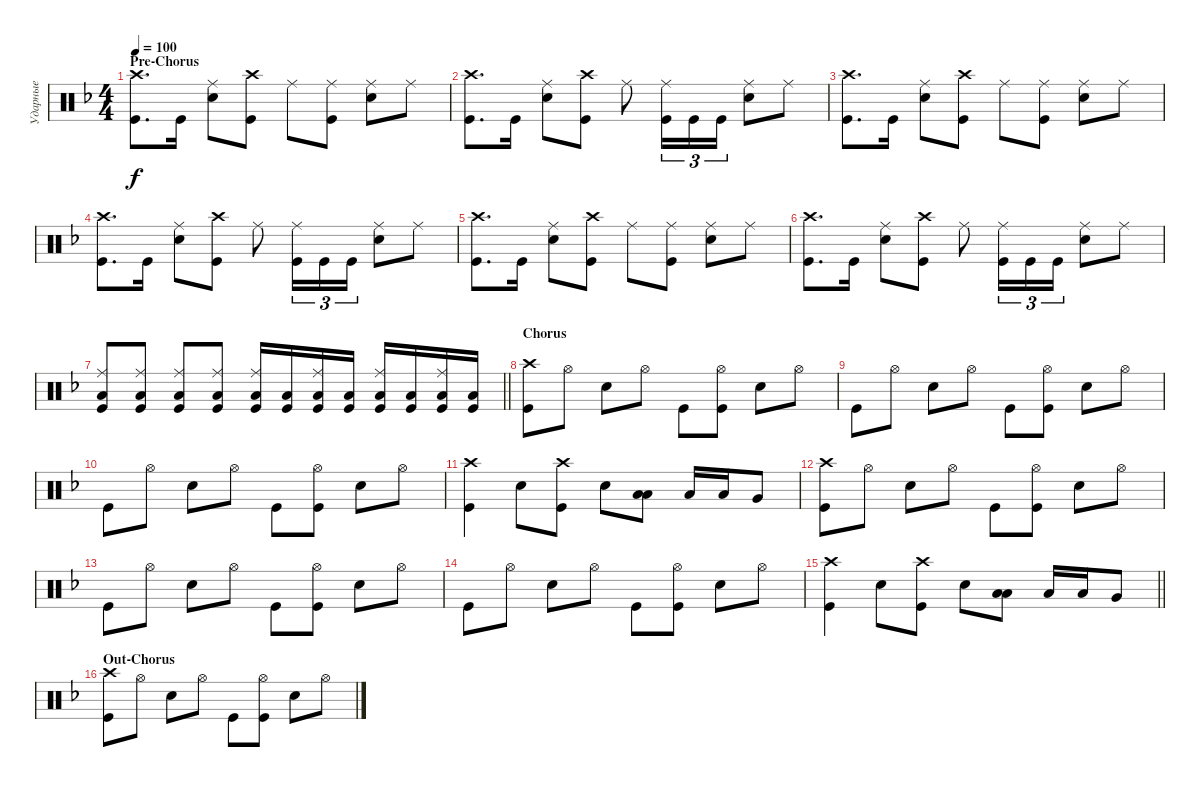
\track ("Ударные" "Ударные") {instrument percussion}
\staff {score}
\articulation defaults
\ts (4 4)
\section ("" "Pre-Chorus")
\tempo 100
\clef neutral
\ks dminor
("Kick (hit)" "Crash high (hit)").8{d dy f} "Kick (hit)".16 ("Snare (hit) 2" "Ride (middle)").8 ("Kick (hit)" "Crash high (hit)").8 "Ride (middle)".8 ("Ride (middle)" "Kick (hit)").8 ("Snare (hit) 2" "Ride (middle)").8 "Ride (middle)".8 |
("Kick (hit)" "Crash high (hit)").8{d} "Kick (hit)".16 ("Snare (hit) 2" "Ride (middle)").8 ("Kick (hit)" "Crash high (hit)").8 "Ride (middle)".8 ("Ride (middle)" "Kick (hit)").16{tu (3 2)} "Kick (hit)".16{tu (3 2)} "Kick (hit)".16{tu (3 2)} ("Snare (hit) 2" "Ride (middle)").8 "Ride (middle)".8 |
("Kick (hit)" "Crash high (hit)").8{d} "Kick (hit)".16 ("Snare (hit) 2" "Ride (middle)").8 ("Kick (hit)" "Crash high (hit)").8 "Ride (middle)".8 ("Ride (middle)" "Kick (hit)").8 ("Snare (hit) 2" "Ride (middle)").8 "Ride (middle)".8 |
("Kick (hit)" "Crash high (hit)").8{d} "Kick (hit)".16 ("Snare (hit) 2" "Ride (middle)").8 ("Kick (hit)" "Crash high (hit)").8 "Ride (middle)".8 ("Ride (middle)" "Kick (hit)").16{tu (3 2)} "Kick (hit)".16{tu (3 2)} "Kick (hit)".16{tu (3 2)} ("Snare (hit) 2" "Ride (middle)").8 "Ride (middle)".8 |
("Kick (hit)" "Crash high (hit)").8{d} "Kick (hit)".16 ("Snare (hit) 2" "Ride (middle)").8 ("Kick (hit)" "Crash high (hit)").8 "Ride (middle)".8 ("Ride (middle)" "Kick (hit)").8 ("Snare (hit) 2" "Ride (middle)").8 "Ride (middle)".8 |
("Kick (hit)" "Crash high (hit)").8{d} "Kick (hit)".16 ("Snare (hit) 2" "Ride (middle)").8 ("Kick (hit)" "Crash high (hit)").8 "Ride (middle)".8 ("Ride (middle)" "Kick (hit)").16{tu (3 2)} "Kick (hit)".16{tu (3 2)} "Kick (hit)".16{tu (3 2)} ("Snare (hit) 2" "Ride (middle)").8 "Ride (middle)".8 |
\barLineRight lightlight
("Kick (hit)" "Ride (middle)" "Low Floor Tom (hit)").8 ("Kick (hit)" "Ride (middle)" "Low Floor Tom (hit)").8 ("Kick (hit)" "Ride (middle)" "Low Floor Tom (hit)").8 ("Kick (hit)" "Ride (middle)" "Low Floor Tom (hit)").8 ("Kick (hit)" "Ride (middle)" "Low Floor Tom (hit)").16 ("Kick (hit)" "Low Floor Tom (hit)").16 ("Kick (hit)" "Ride (middle)" "Low Floor Tom (hit)").16 ("Kick (hit)" "Low Floor Tom (hit)").16 ("Kick (hit)" "Ride (middle)" "Low Floor Tom (hit)").16 ("Kick (hit)" "Low Floor Tom (hit)").16 ("Kick (hit)" "Ride (middle)" "Low Floor Tom (hit)").16 ("Kick (hit)" "Low Floor Tom (hit)").16 |
\section ("" "Chorus")
("Kick (hit)" "Crash high (hit)").8 "Hi-Hat (open)".8 "Snare (hit) 2".8 "Hi-Hat (open)".8 "Kick (hit)".8 ("Hi-Hat (open)" "Kick (hit)").8 "Snare (hit) 2".8 "Hi-Hat (open)".8 |
"Kick (hit)".8 "Hi-Hat (open)".8 "Snare (hit) 2".8 "Hi-Hat (open)".8 "Kick (hit)".8 ("Hi-Hat (open)" "Kick (hit)").8 "Snare (hit) 2".8 "Hi-Hat (open)".8 |
"Kick (hit)".8 "Hi-Hat (open)".8 "Snare (hit) 2".8 "Hi-Hat (open)".8 "Kick (hit)".8 ("Hi-Hat (open)" "Kick (hit)").8 "Snare (hit) 2".8 "Hi-Hat (open)".8 |
("Kick (hit)" "Crash high (hit)").4 "Snare (hit) 2".8 ("Kick (hit)" "Crash high (hit)").8 "Snare (hit) 2".8 ("Low Tom (hit)" "Low Tom (hit)").8{bd 120} "Low Tom (hit)".16 "Low Tom (hit)".16 "Very Low Tom (hit)".8 |
("Kick (hit)" "Crash high (hit)").8 "Hi-Hat (open)".8 "Snare (hit) 2".8 "Hi-Hat (open)".8 "Kick (hit)".8 ("Hi-Hat (open)" "Kick (hit)").8 "Snare (hit) 2".8 "Hi-Hat (open)".8 |
"Kick (hit)".8 "Hi-Hat (open)".8 "Snare (hit) 2".8 "Hi-Hat (open)".8 "Kick (hit)".8 ("Hi-Hat (open)" "Kick (hit)").8 "Snare (hit) 2".8 "Hi-Hat (open)".8 |
"Kick (hit)".8 "Hi-Hat (open)".8 "Snare (hit) 2".8 "Hi-Hat (open)".8 "Kick (hit)".8 ("Hi-Hat (open)" "Kick (hit)").8 "Snare (hit) 2".8 "Hi-Hat (open)".8 |
\barLineRight lightlight
("Kick (hit)" "Crash high (hit)").4 "Snare (hit) 2".8 ("Kick (hit)" "Crash high (hit)").8 "Snare (hit) 2".8 ("Low Tom (hit)" "Low Tom (hit)").8{bd 120} "Low Tom (hit)".16 "Low Tom (hit)".16 "Very Low Tom (hit)".8 |
\section ("" "Out-Chorus")
("Kick (hit)" "Crash high (hit)").8 "Hi-Hat (open)".8 "Snare (hit) 2".8 "Hi-Hat (open)".8 "Kick (hit)".8 ("Hi-Hat (open)" "Kick (hit)").8 "Snare (hit) 2".8 "Hi-Hat (open)".8
